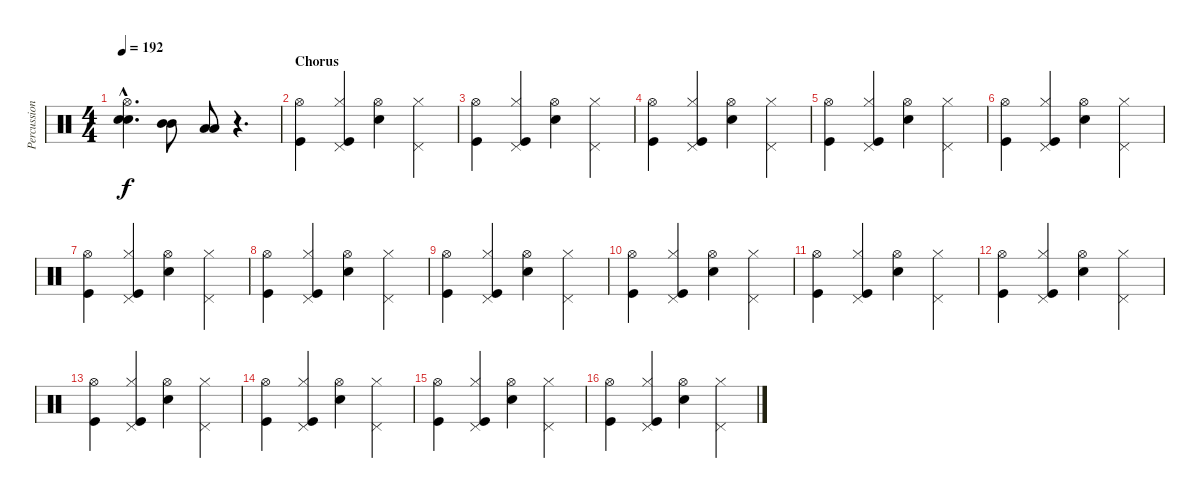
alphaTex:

\track ("Percussion" "Percussion") {instrument percussion}
\staff {score}
\articulation defaults
\ts (4 4)
\tempo 192
\clef neutral
\ks c
("Hi-Hat (open)"{hac} "Electric Snare (hit)"{hac} "Electric Snare (hit)"{hac}).4{d dy f} ("Mid Tom (hit)" "Mid Tom (hit)").8 ("Low Tom (hit)" "Low Tom (hit)").8 r.4{d} |
\section ("" "Chorus")
("Hi-Hat (open)" "Kick (hit)").4 ("Hi-Hat (closed)" "Pedal Hi-Hat (hit)" "Kick (hit)").4 ("Hi-Hat (open)" "Electric Snare (hit)").4 ("Hi-Hat (closed)" "Pedal Hi-Hat (hit)").4 |
("Hi-Hat (open)" "Kick (hit)").4 ("Hi-Hat (closed)" "Pedal Hi-Hat (hit)" "Kick (hit)").4 ("Hi-Hat (open)" "Electric Snare (hit)").4 ("Hi-Hat (closed)" "Pedal Hi-Hat (hit)").4 |
("Hi-Hat (open)" "Kick (hit)").4 ("Hi-Hat (closed)" "Pedal Hi-Hat (hit)" "Kick (hit)").4 ("Hi-Hat (open)" "Electric Snare (hit)").4 ("Hi-Hat (closed)" "Pedal Hi-Hat (hit)").4 |
("Hi-Hat (open)" "Kick (hit)").4 ("Hi-Hat (closed)" "Pedal Hi-Hat (hit)" "Kick (hit)").4 ("Hi-Hat (open)" "Electric Snare (hit)").4 ("Hi-Hat (closed)" "Pedal Hi-Hat (hit)").4 |
("Hi-Hat (open)" "Kick (hit)").4 ("Hi-Hat (closed)" "Pedal Hi-Hat (hit)" "Kick (hit)").4 ("Hi-Hat (open)" "Electric Snare (hit)").4 ("Hi-Hat (closed)" "Pedal Hi-Hat (hit)").4 |
("Hi-Hat (open)" "Kick (hit)").4 ("Hi-Hat (closed)" "Pedal Hi-Hat (hit)" "Kick (hit)").4 ("Hi-Hat (open)" "Electric Snare (hit)").4 ("Hi-Hat (closed)" "Pedal Hi-Hat (hit)").4 |
("Hi-Hat (open)" "Kick (hit)").4 ("Hi-Hat (closed)" "Pedal Hi-Hat (hit)" "Kick (hit)").4 ("Hi-Hat (open)" "Electric Snare (hit)").4 ("Hi-Hat (closed)" "Pedal Hi-Hat (hit)").4 |
("Hi-Hat (open)" "Kick (hit)").4 ("Hi-Hat (closed)" "Pedal Hi-Hat (hit)" "Kick (hit)").4 ("Hi-Hat (open)" "Electric Snare (hit)").4 ("Hi-Hat (closed)" "Pedal Hi-Hat (hit)").4 |
("Hi-Hat (open)" "Kick (hit)").4 ("Hi-Hat (closed)" "Pedal Hi-Hat (hit)" "Kick (hit)").4 ("Hi-Hat (open)" "Electric Snare (hit)").4 ("Hi-Hat (closed)" "Pedal Hi-Hat (hit)").4 |
("Hi-Hat (open)" "Kick (hit)").4 ("Hi-Hat (closed)" "Pedal Hi-Hat (hit)" "Kick (hit)").4 ("Hi-Hat (open)" "Electric Snare (hit)").4 ("Hi-Hat (closed)" "Pedal Hi-Hat (hit)").4 |
("Hi-Hat (open)" "Kick (hit)").4 ("Hi-Hat (closed)" "Pedal Hi-Hat (hit)" "Kick (hit)").4 ("Hi-Hat (open)" "Electric Snare (hit)").4 ("Hi-Hat (closed)" "Pedal Hi-Hat (hit)").4 |
("Hi-Hat (open)" "Kick (hit)").4 ("Hi-Hat (closed)" "Pedal Hi-Hat (hit)" "Kick (hit)").4 ("Hi-Hat (open)" "Electric Snare (hit)").4 ("Hi-Hat (closed)" "Pedal Hi-Hat (hit)").4 |
("Hi-Hat (open)" "Kick (hit)").4 ("Hi-Hat (closed)" "Pedal Hi-Hat (hit)" "Kick (hit)").4 ("Hi-Hat (open)" "Electric Snare (hit)").4 ("Hi-Hat (closed)" "Pedal Hi-Hat (hit)").4 |
("Hi-Hat (open)" "Kick (hit)").4 ("Hi-Hat (closed)" "Pedal Hi-Hat (hit)" "Kick (hit)").4 ("Hi-Hat (open)" "Electric Snare (hit)").4 ("Hi-Hat (closed)" "Pedal Hi-Hat (hit)").4 |
("Hi-Hat (open)" "Kick (hit)").4 ("Hi-Hat (closed)" "Pedal Hi-Hat (hit)" "Kick (hit)").4 ("Hi-Hat (open)" "Electric Snare (hit)").4 ("Hi-Hat (closed)" "Pedal Hi-Hat (hit)").4
